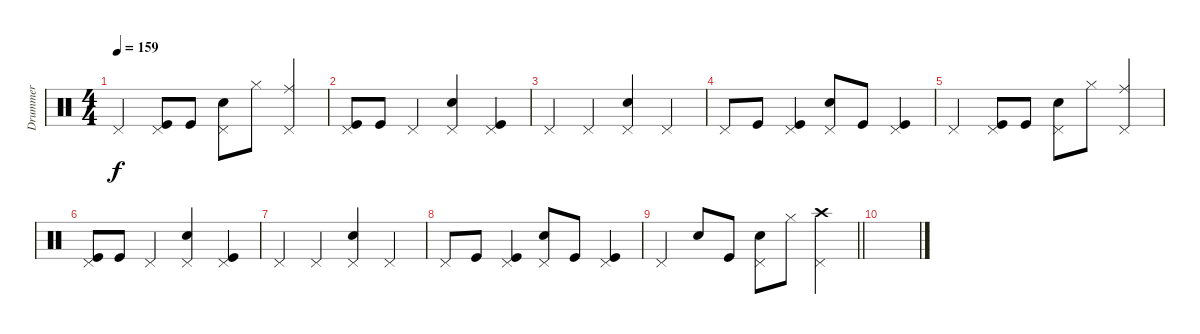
\track ("Drummer" "Drummer") {instrument percussion}
\staff {score}
\articulation defaults
\ts (4 4)
\tempo 159
\clef neutral
\ks c "Pedal Hi-Hat (hit)".4{dy f}
("Kick (hit)" "Pedal Hi-Hat (hit)").8 "Kick (hit)".8 ("Snare (hit) 2" "Pedal Hi-Hat (hit)").8 "Hi-Hat (closed)".8 ("Ride (middle)" "Pedal Hi-Hat (hit)").4 |
("Kick (hit)" "Pedal Hi-Hat (hit)").8 "Kick (hit)".8 "Pedal Hi-Hat (hit)".4 ("Snare (hit) 2" "Pedal Hi-Hat (hit)").4 ("Kick (hit)" "Pedal Hi-Hat (hit)").4 |
"Pedal Hi-Hat (hit)".4 "Pedal Hi-Hat (hit)".4 ("Snare (hit) 2" "Pedal Hi-Hat (hit)").4 "Pedal Hi-Hat (hit)".4 |
"Pedal Hi-Hat (hit)".8 "Kick (hit)".8 ("Kick (hit)" "Pedal Hi-Hat (hit)").4 ("Snare (hit) 2" "Pedal Hi-Hat (hit)").8 "Kick (hit)".8 ("Kick (hit)" "Pedal Hi-Hat (hit)").4 |
"Pedal Hi-Hat (hit)".4 ("Kick (hit)" "Pedal Hi-Hat (hit)").8 "Kick (hit)".8 ("Snare (hit) 2" "Pedal Hi-Hat (hit)").8 "Hi-Hat (closed)".8 ("Ride (middle)" "Pedal Hi-Hat (hit)").4 |
("Kick (hit)" "Pedal Hi-Hat (hit)").8 "Kick (hit)".8 "Pedal Hi-Hat (hit)".4 ("Snare (hit) 2" "Pedal Hi-Hat (hit)").4 ("Kick (hit)" "Pedal Hi-Hat (hit)").4 |
"Pedal Hi-Hat (hit)".4 "Pedal Hi-Hat (hit)".4 ("Snare (hit) 2" "Pedal Hi-Hat (hit)").4 "Pedal Hi-Hat (hit)".4 |
"Pedal Hi-Hat (hit)".8 "Kick (hit)".8 ("Kick (hit)" "Pedal Hi-Hat (hit)").4 ("Snare (hit) 2" "Pedal Hi-Hat (hit)").8 "Kick (hit)".8 ("Kick (hit)" "Pedal Hi-Hat (hit)").4 |
\barLineRight lightlight "Pedal Hi-Hat (hit)".4 "Snare (hit) 2".8 "Kick (hit)".8
("Snare (hit) 2" "Pedal Hi-Hat (hit)").8 "Hi-Hat (closed)".8 ("Crash high (hit)" "Pedal Hi-Hat (hit)").4 |
\section ("" "")
